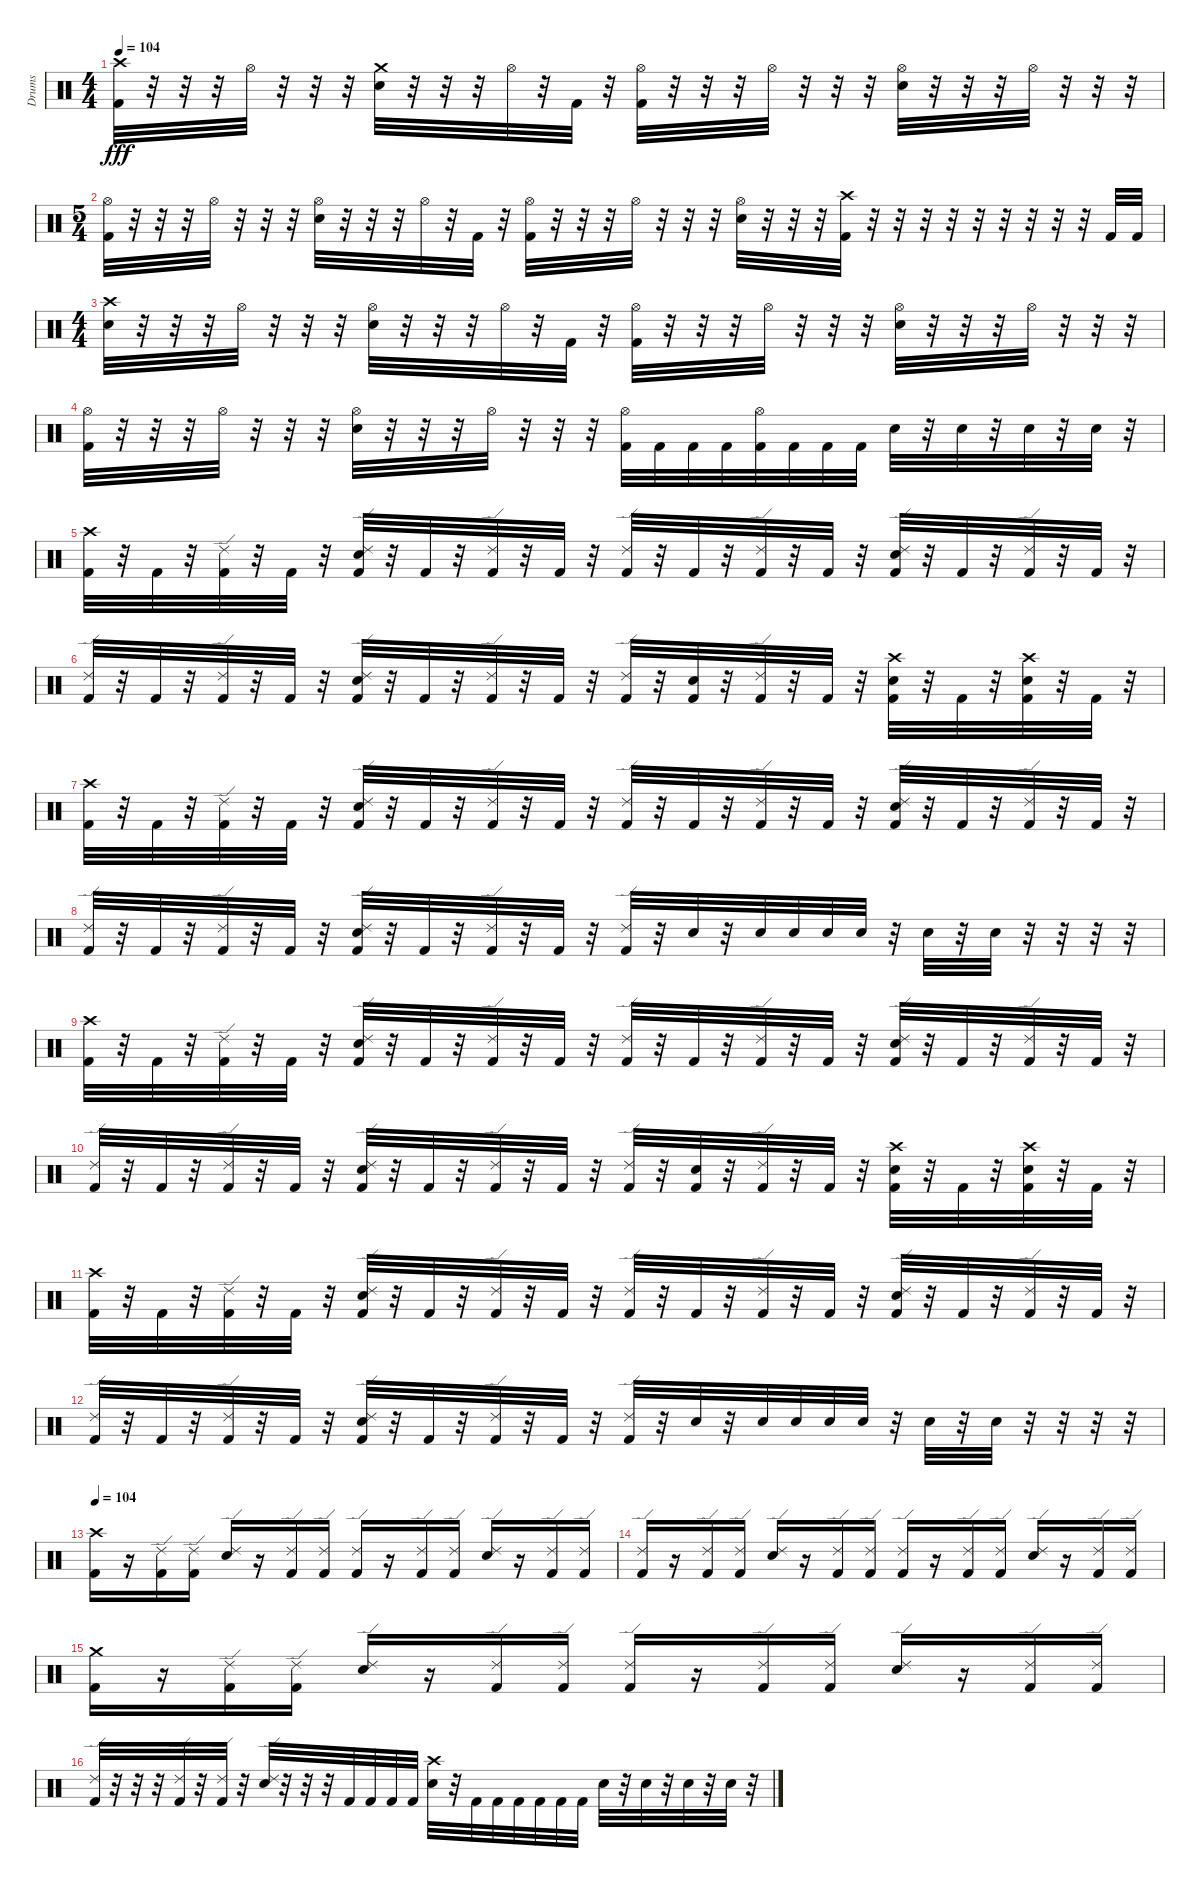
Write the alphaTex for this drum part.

\track ("Drums" "Drums") {instrument percussion}
\staff {score}
\articulation defaults
\ts (4 4)
\tempo 104
\clef neutral
\ks c
("Crash high (hit)" "Kick (hit) 2").32{dy fff} r.32 r.32 r.32 "Hi-Hat (open)".32 r.32 r.32 r.32 ("Crash medium (hit)" "Snare (hit) 2").32 r.32 r.32 r.32 "Hi-Hat (open)".32 r.32 "Kick (hit) 2".32 r.32 ("Hi-Hat (open)" "Kick (hit) 2").32 r.32 r.32 r.32 "Hi-Hat (open)".32 r.32 r.32 r.32 ("Hi-Hat (open)" "Snare (hit) 2").32 r.32 r.32 r.32 "Hi-Hat (open)".32 r.32 r.32 r.32 |
\ts (5 4)
("Hi-Hat (open)" "Kick (hit) 2").32 r.32 r.32 r.32 "Hi-Hat (open)".32 r.32 r.32 r.32 ("Hi-Hat (open)" "Snare (hit) 2").32 r.32 r.32 r.32 "Hi-Hat (open)".32 r.32 "Kick (hit) 2".32 r.32 ("Hi-Hat (open)" "Kick (hit) 2").32 r.32 r.32 r.32 "Hi-Hat (open)".32 r.32 r.32 r.32 ("Hi-Hat (open)" "Snare (hit) 2").32 r.32 r.32 r.32 ("Crash high (hit)" "Kick (hit) 2").32 r.32 r.32 r.32 r.32 r.32 r.32 r.32 r.32 r.32 "Kick (hit) 2".32 "Kick (hit) 2".32 |
\ts (4 4)
("Crash high (hit)" "Snare (hit) 2").32 r.32 r.32 r.32 "Hi-Hat (open)".32 r.32 r.32 r.32 ("Hi-Hat (open)" "Snare (hit) 2").32 r.32 r.32 r.32 "Hi-Hat (open)".32 r.32 "Kick (hit) 2".32 r.32 ("Hi-Hat (open)" "Kick (hit) 2").32 r.32 r.32 r.32 "Hi-Hat (open)".32 r.32 r.32 r.32 ("Hi-Hat (open)" "Snare (hit) 2").32 r.32 r.32 r.32 "Hi-Hat (open)".32 r.32 r.32 r.32 |
("Hi-Hat (open)" "Kick (hit) 2").32 r.32 r.32 r.32 "Hi-Hat (open)".32 r.32 r.32 r.32 ("Hi-Hat (open)" "Snare (hit) 2").32 r.32 r.32 r.32 "Hi-Hat (open)".32 r.32 r.32 r.32 ("Hi-Hat (open)" "Kick (hit) 2").32 "Kick (hit) 2".32 "Kick (hit) 2".32 "Kick (hit) 2".32 ("Hi-Hat (open)" "Kick (hit) 2").32 "Kick (hit) 2".32 "Kick (hit) 2".32 "Kick (hit) 2".32 "Snare (hit) 2".32 r.32 "Snare (hit) 2".32 r.32 "Snare (hit) 2".32 r.32 "Snare (hit) 2".32 r.32 |
("Crash high (hit)" "Kick (hit) 2").32 r.32 "Kick (hit) 2".32 r.32 ("Ride (edge) 2" "Kick (hit) 2").32 r.32 "Kick (hit) 2".32 r.32 ("Ride (edge) 2" "Snare (hit) 2" "Kick (hit) 2").32 r.32 "Kick (hit) 2".32 r.32 ("Ride (edge) 2" "Kick (hit) 2").32 r.32 "Kick (hit) 2".32 r.32 ("Ride (edge) 2" "Kick (hit) 2").32 r.32 "Kick (hit) 2".32 r.32 ("Ride (edge) 2" "Kick (hit) 2").32 r.32 "Kick (hit) 2".32 r.32 ("Ride (edge) 2" "Snare (hit) 2" "Kick (hit) 2").32 r.32 "Kick (hit) 2".32 r.32 ("Ride (edge) 2" "Kick (hit) 2").32 r.32 "Kick (hit) 2".32 r.32 |
("Ride (edge) 2" "Kick (hit) 2").32 r.32 "Kick (hit) 2".32 r.32 ("Ride (edge) 2" "Kick (hit) 2").32 r.32 "Kick (hit) 2".32 r.32 ("Ride (edge) 2" "Snare (hit) 2" "Kick (hit) 2").32 r.32 "Kick (hit) 2".32 r.32 ("Ride (edge) 2" "Kick (hit) 2").32 r.32 "Kick (hit) 2".32 r.32 ("Ride (edge) 2" "Kick (hit) 2").32 r.32 ("Snare (hit) 2" "Kick (hit) 2").32 r.32 ("Ride (edge) 2" "Kick (hit) 2").32 r.32 "Kick (hit) 2".32 r.32 ("Crash high (hit)" "Snare (hit) 2" "Kick (hit) 2").32 r.32 "Kick (hit) 2".32 r.32 ("Crash high (hit)" "Snare (hit) 2" "Kick (hit) 2").32 r.32 "Kick (hit) 2".32 r.32 |
("Crash high (hit)" "Kick (hit) 2").32 r.32 "Kick (hit) 2".32 r.32 ("Ride (edge) 2" "Kick (hit) 2").32 r.32 "Kick (hit) 2".32 r.32 ("Ride (edge) 2" "Snare (hit) 2" "Kick (hit) 2").32 r.32 "Kick (hit) 2".32 r.32 ("Ride (edge) 2" "Kick (hit) 2").32 r.32 "Kick (hit) 2".32 r.32 ("Ride (edge) 2" "Kick (hit) 2").32 r.32 "Kick (hit) 2".32 r.32 ("Ride (edge) 2" "Kick (hit) 2").32 r.32 "Kick (hit) 2".32 r.32 ("Ride (edge) 2" "Snare (hit) 2" "Kick (hit) 2").32 r.32 "Kick (hit) 2".32 r.32 ("Ride (edge) 2" "Kick (hit) 2").32 r.32 "Kick (hit) 2".32 r.32 |
("Ride (edge) 2" "Kick (hit) 2").32 r.32 "Kick (hit) 2".32 r.32 ("Ride (edge) 2" "Kick (hit) 2").32 r.32 "Kick (hit) 2".32 r.32 ("Ride (edge) 2" "Snare (hit) 2" "Kick (hit) 2").32 r.32 "Kick (hit) 2".32 r.32 ("Ride (edge) 2" "Kick (hit) 2").32 r.32 "Kick (hit) 2".32 r.32 ("Ride (edge) 2" "Kick (hit) 2").32 r.32 "Snare (hit) 2".32 r.32 "Snare (hit) 2".32 "Snare (hit) 2".32 "Snare (hit) 2".32 "Snare (hit) 2".32 r.32 "Snare (hit) 2".32 r.32 "Snare (hit) 2".32 r.32 r.32 r.32 r.32 |
("Crash high (hit)" "Kick (hit) 2").32 r.32 "Kick (hit) 2".32 r.32 ("Ride (edge) 2" "Kick (hit) 2").32 r.32 "Kick (hit) 2".32 r.32 ("Ride (edge) 2" "Snare (hit) 2" "Kick (hit) 2").32 r.32 "Kick (hit) 2".32 r.32 ("Ride (edge) 2" "Kick (hit) 2").32 r.32 "Kick (hit) 2".32 r.32 ("Ride (edge) 2" "Kick (hit) 2").32 r.32 "Kick (hit) 2".32 r.32 ("Ride (edge) 2" "Kick (hit) 2").32 r.32 "Kick (hit) 2".32 r.32 ("Ride (edge) 2" "Snare (hit) 2" "Kick (hit) 2").32 r.32 "Kick (hit) 2".32 r.32 ("Ride (edge) 2" "Kick (hit) 2").32 r.32 "Kick (hit) 2".32 r.32 |
("Ride (edge) 2" "Kick (hit) 2").32 r.32 "Kick (hit) 2".32 r.32 ("Ride (edge) 2" "Kick (hit) 2").32 r.32 "Kick (hit) 2".32 r.32 ("Ride (edge) 2" "Snare (hit) 2" "Kick (hit) 2").32 r.32 "Kick (hit) 2".32 r.32 ("Ride (edge) 2" "Kick (hit) 2").32 r.32 "Kick (hit) 2".32 r.32 ("Ride (edge) 2" "Kick (hit) 2").32 r.32 ("Snare (hit) 2" "Kick (hit) 2").32 r.32 ("Ride (edge) 2" "Kick (hit) 2").32 r.32 "Kick (hit) 2".32 r.32 ("Crash high (hit)" "Snare (hit) 2" "Kick (hit) 2").32 r.32 "Kick (hit) 2".32 r.32 ("Crash high (hit)" "Snare (hit) 2" "Kick (hit) 2").32 r.32 "Kick (hit) 2".32 r.32 |
("Crash high (hit)" "Kick (hit) 2").32 r.32 "Kick (hit) 2".32 r.32 ("Ride (edge) 2" "Kick (hit) 2").32 r.32 "Kick (hit) 2".32 r.32 ("Ride (edge) 2" "Snare (hit) 2" "Kick (hit) 2").32 r.32 "Kick (hit) 2".32 r.32 ("Ride (edge) 2" "Kick (hit) 2").32 r.32 "Kick (hit) 2".32 r.32 ("Ride (edge) 2" "Kick (hit) 2").32 r.32 "Kick (hit) 2".32 r.32 ("Ride (edge) 2" "Kick (hit) 2").32 r.32 "Kick (hit) 2".32 r.32 ("Ride (edge) 2" "Snare (hit) 2" "Kick (hit) 2").32 r.32 "Kick (hit) 2".32 r.32 ("Ride (edge) 2" "Kick (hit) 2").32 r.32 "Kick (hit) 2".32 r.32 |
("Ride (edge) 2" "Kick (hit) 2").32 r.32 "Kick (hit) 2".32 r.32 ("Ride (edge) 2" "Kick (hit) 2").32 r.32 "Kick (hit) 2".32 r.32 ("Ride (edge) 2" "Snare (hit) 2" "Kick (hit) 2").32 r.32 "Kick (hit) 2".32 r.32 ("Ride (edge) 2" "Kick (hit) 2").32 r.32 "Kick (hit) 2".32 r.32 ("Ride (edge) 2" "Kick (hit) 2").32 r.32 "Snare (hit) 2".32 r.32 "Snare (hit) 2".32 "Snare (hit) 2".32 "Snare (hit) 2".32 "Snare (hit) 2".32 r.32 "Snare (hit) 2".32 r.32 "Snare (hit) 2".32 r.32 r.32 r.32 r.32 |
\tempo 104
("Crash high (hit)" "Kick (hit) 2").16 r.16 ("Ride (edge) 2" "Kick (hit) 2").16 ("Ride (edge) 2" "Kick (hit) 2").16 ("Ride (edge) 2" "Snare (hit) 2").16 r.16 ("Ride (edge) 2" "Kick (hit) 2").16 ("Ride (edge) 2" "Kick (hit) 2").16 ("Ride (edge) 2" "Kick (hit) 2").16 r.16 ("Ride (edge) 2" "Kick (hit) 2").16 ("Ride (edge) 2" "Kick (hit) 2").16 ("Ride (edge) 2" "Snare (hit) 2").16 r.16 ("Ride (edge) 2" "Kick (hit) 2").16 ("Ride (edge) 2" "Kick (hit) 2").16 |
("Ride (edge) 2" "Kick (hit) 2").16 r.16 ("Ride (edge) 2" "Kick (hit) 2").16 ("Ride (edge) 2" "Kick (hit) 2").16 ("Ride (edge) 2" "Snare (hit) 2").16 r.16 ("Ride (edge) 2" "Kick (hit) 2").16 ("Ride (edge) 2" "Kick (hit) 2").16 ("Ride (edge) 2" "Kick (hit) 2").16 r.16 ("Ride (edge) 2" "Kick (hit) 2").16 ("Ride (edge) 2" "Kick (hit) 2").16 ("Ride (edge) 2" "Snare (hit) 2").16 r.16 ("Ride (edge) 2" "Kick (hit) 2").16 ("Ride (edge) 2" "Kick (hit) 2").16 |
("Crash medium (hit)" "Kick (hit) 2").16 r.16 ("Ride (edge) 2" "Kick (hit) 2").16 ("Ride (edge) 2" "Kick (hit) 2").16 ("Ride (edge) 2" "Snare (hit) 2").16 r.16 ("Ride (edge) 2" "Kick (hit) 2").16 ("Ride (edge) 2" "Kick (hit) 2").16 ("Ride (edge) 2" "Kick (hit) 2").16 r.16 ("Ride (edge) 2" "Kick (hit) 2").16 ("Ride (edge) 2" "Kick (hit) 2").16 ("Ride (edge) 2" "Snare (hit) 2").16 r.16 ("Ride (edge) 2" "Kick (hit) 2").16 ("Ride (edge) 2" "Kick (hit) 2").16 |
("Ride (edge) 2" "Kick (hit) 2").32 r.32 r.32 r.32 ("Ride (edge) 2" "Kick (hit) 2").32 r.32 ("Ride (edge) 2" "Kick (hit) 2").32 r.32 ("Ride (edge) 2" "Snare (hit) 2").32 r.32 r.32 r.32 "Kick (hit) 2".32 "Kick (hit) 2".32 "Kick (hit) 2".32 "Kick (hit) 2".32 ("Crash high (hit)" "Snare (hit) 2").32 r.32 "Kick (hit) 2".32 "Kick (hit) 2".32 "Kick (hit) 2".32 "Kick (hit) 2".32 "Kick (hit) 2".32 "Kick (hit) 2".32 "Snare (hit) 2".32 r.32 "Snare (hit) 2".32 r.32 "Snare (hit) 2".32 r.32 "Snare (hit) 2".32 r.32
